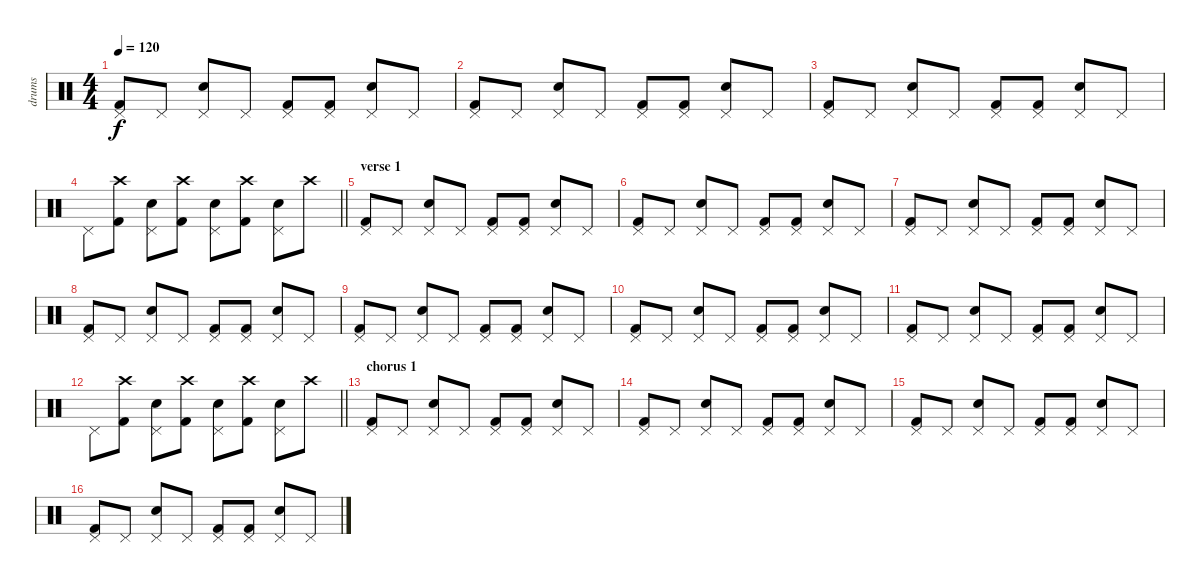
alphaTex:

\track ("drums" "drums") {instrument percussion}
\staff {score}
\articulation defaults
\ts (4 4)
\tempo 120
\clef neutral
\ks c
("Kick (hit) 2" "Pedal Hi-Hat (hit)").8{dy f} "Pedal Hi-Hat (hit)".8 ("Electric Snare (hit)" "Pedal Hi-Hat (hit)").8 "Pedal Hi-Hat (hit)".8 ("Kick (hit) 2" "Pedal Hi-Hat (hit)").8 ("Kick (hit) 2" "Pedal Hi-Hat (hit)").8 ("Electric Snare (hit)" "Pedal Hi-Hat (hit)").8 "Pedal Hi-Hat (hit)".8 |
("Kick (hit) 2" "Pedal Hi-Hat (hit)").8 "Pedal Hi-Hat (hit)".8 ("Electric Snare (hit)" "Pedal Hi-Hat (hit)").8 "Pedal Hi-Hat (hit)".8 ("Kick (hit) 2" "Pedal Hi-Hat (hit)").8 ("Kick (hit) 2" "Pedal Hi-Hat (hit)").8 ("Electric Snare (hit)" "Pedal Hi-Hat (hit)").8 "Pedal Hi-Hat (hit)".8 |
("Kick (hit) 2" "Pedal Hi-Hat (hit)").8 "Pedal Hi-Hat (hit)".8 ("Electric Snare (hit)" "Pedal Hi-Hat (hit)").8 "Pedal Hi-Hat (hit)".8 ("Kick (hit) 2" "Pedal Hi-Hat (hit)").8 ("Kick (hit) 2" "Pedal Hi-Hat (hit)").8 ("Electric Snare (hit)" "Pedal Hi-Hat (hit)").8 "Pedal Hi-Hat (hit)".8 |
\barLineRight lightlight "Pedal Hi-Hat (hit)".8
("Kick (hit) 2" "Crash high (hit)").8 ("Electric Snare (hit)" "Pedal Hi-Hat (hit)").8 ("Kick (hit) 2" "Crash high (hit)").8 ("Electric Snare (hit)" "Pedal Hi-Hat (hit)").8 ("Kick (hit) 2" "Crash high (hit)").8 ("Electric Snare (hit)" "Pedal Hi-Hat (hit)").8 "Crash high (hit)".8 |
\section ("" "verse 1")
("Kick (hit) 2" "Pedal Hi-Hat (hit)").8 "Pedal Hi-Hat (hit)".8 ("Electric Snare (hit)" "Pedal Hi-Hat (hit)").8 "Pedal Hi-Hat (hit)".8 ("Kick (hit) 2" "Pedal Hi-Hat (hit)").8 ("Kick (hit) 2" "Pedal Hi-Hat (hit)").8 ("Electric Snare (hit)" "Pedal Hi-Hat (hit)").8 "Pedal Hi-Hat (hit)".8 |
("Kick (hit) 2" "Pedal Hi-Hat (hit)").8 "Pedal Hi-Hat (hit)".8 ("Electric Snare (hit)" "Pedal Hi-Hat (hit)").8 "Pedal Hi-Hat (hit)".8 ("Kick (hit) 2" "Pedal Hi-Hat (hit)").8 ("Kick (hit) 2" "Pedal Hi-Hat (hit)").8 ("Electric Snare (hit)" "Pedal Hi-Hat (hit)").8 "Pedal Hi-Hat (hit)".8 |
("Kick (hit) 2" "Pedal Hi-Hat (hit)").8 "Pedal Hi-Hat (hit)".8 ("Electric Snare (hit)" "Pedal Hi-Hat (hit)").8 "Pedal Hi-Hat (hit)".8 ("Kick (hit) 2" "Pedal Hi-Hat (hit)").8 ("Kick (hit) 2" "Pedal Hi-Hat (hit)").8 ("Electric Snare (hit)" "Pedal Hi-Hat (hit)").8 "Pedal Hi-Hat (hit)".8 |
("Kick (hit) 2" "Pedal Hi-Hat (hit)").8 "Pedal Hi-Hat (hit)".8 ("Electric Snare (hit)" "Pedal Hi-Hat (hit)").8 "Pedal Hi-Hat (hit)".8 ("Kick (hit) 2" "Pedal Hi-Hat (hit)").8 ("Kick (hit) 2" "Pedal Hi-Hat (hit)").8 ("Electric Snare (hit)" "Pedal Hi-Hat (hit)").8 "Pedal Hi-Hat (hit)".8 |
("Kick (hit) 2" "Pedal Hi-Hat (hit)").8 "Pedal Hi-Hat (hit)".8 ("Electric Snare (hit)" "Pedal Hi-Hat (hit)").8 "Pedal Hi-Hat (hit)".8 ("Kick (hit) 2" "Pedal Hi-Hat (hit)").8 ("Kick (hit) 2" "Pedal Hi-Hat (hit)").8 ("Electric Snare (hit)" "Pedal Hi-Hat (hit)").8 "Pedal Hi-Hat (hit)".8 |
("Kick (hit) 2" "Pedal Hi-Hat (hit)").8 "Pedal Hi-Hat (hit)".8 ("Electric Snare (hit)" "Pedal Hi-Hat (hit)").8 "Pedal Hi-Hat (hit)".8 ("Kick (hit) 2" "Pedal Hi-Hat (hit)").8 ("Kick (hit) 2" "Pedal Hi-Hat (hit)").8 ("Electric Snare (hit)" "Pedal Hi-Hat (hit)").8 "Pedal Hi-Hat (hit)".8 |
("Kick (hit) 2" "Pedal Hi-Hat (hit)").8 "Pedal Hi-Hat (hit)".8 ("Electric Snare (hit)" "Pedal Hi-Hat (hit)").8 "Pedal Hi-Hat (hit)".8 ("Kick (hit) 2" "Pedal Hi-Hat (hit)").8 ("Kick (hit) 2" "Pedal Hi-Hat (hit)").8 ("Electric Snare (hit)" "Pedal Hi-Hat (hit)").8 "Pedal Hi-Hat (hit)".8 |
\barLineRight lightlight "Pedal Hi-Hat (hit)".8
("Kick (hit) 2" "Crash high (hit)").8 ("Electric Snare (hit)" "Pedal Hi-Hat (hit)").8 ("Kick (hit) 2" "Crash high (hit)").8 ("Electric Snare (hit)" "Pedal Hi-Hat (hit)").8 ("Kick (hit) 2" "Crash high (hit)").8 ("Electric Snare (hit)" "Pedal Hi-Hat (hit)").8 "Crash high (hit)".8 |
\section ("" "chorus 1")
("Kick (hit) 2" "Pedal Hi-Hat (hit)").8 "Pedal Hi-Hat (hit)".8 ("Electric Snare (hit)" "Pedal Hi-Hat (hit)").8 "Pedal Hi-Hat (hit)".8 ("Kick (hit) 2" "Pedal Hi-Hat (hit)").8 ("Kick (hit) 2" "Pedal Hi-Hat (hit)").8 ("Electric Snare (hit)" "Pedal Hi-Hat (hit)").8 "Pedal Hi-Hat (hit)".8 |
("Kick (hit) 2" "Pedal Hi-Hat (hit)").8 "Pedal Hi-Hat (hit)".8 ("Electric Snare (hit)" "Pedal Hi-Hat (hit)").8 "Pedal Hi-Hat (hit)".8 ("Kick (hit) 2" "Pedal Hi-Hat (hit)").8 ("Kick (hit) 2" "Pedal Hi-Hat (hit)").8 ("Electric Snare (hit)" "Pedal Hi-Hat (hit)").8 "Pedal Hi-Hat (hit)".8 |
("Kick (hit) 2" "Pedal Hi-Hat (hit)").8 "Pedal Hi-Hat (hit)".8 ("Electric Snare (hit)" "Pedal Hi-Hat (hit)").8 "Pedal Hi-Hat (hit)".8 ("Kick (hit) 2" "Pedal Hi-Hat (hit)").8 ("Kick (hit) 2" "Pedal Hi-Hat (hit)").8 ("Electric Snare (hit)" "Pedal Hi-Hat (hit)").8 "Pedal Hi-Hat (hit)".8 |
("Kick (hit) 2" "Pedal Hi-Hat (hit)").8 "Pedal Hi-Hat (hit)".8 ("Electric Snare (hit)" "Pedal Hi-Hat (hit)").8 "Pedal Hi-Hat (hit)".8 ("Kick (hit) 2" "Pedal Hi-Hat (hit)").8 ("Kick (hit) 2" "Pedal Hi-Hat (hit)").8 ("Electric Snare (hit)" "Pedal Hi-Hat (hit)").8 "Pedal Hi-Hat (hit)".8
